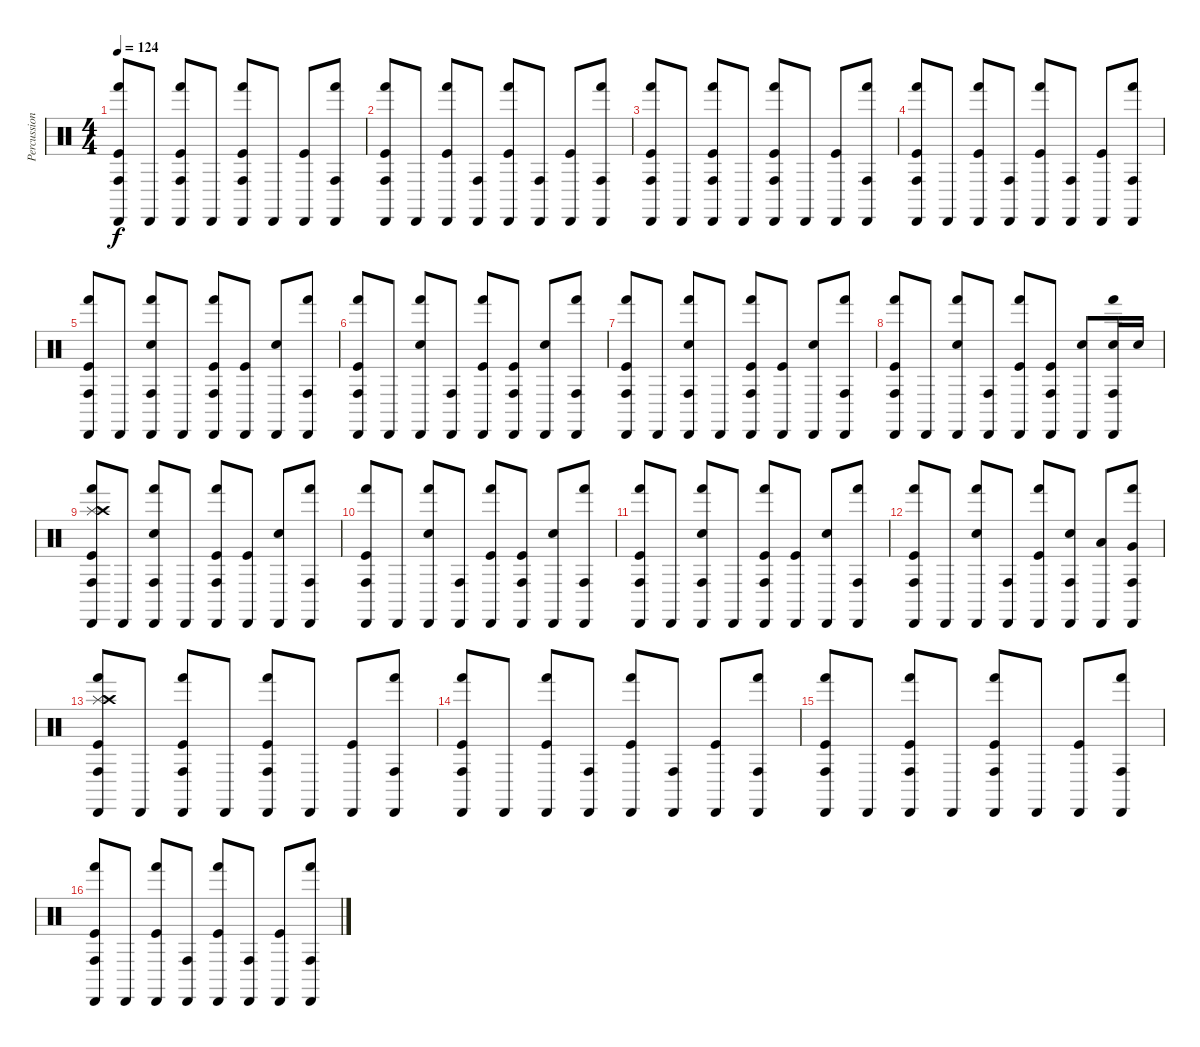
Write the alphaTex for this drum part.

\track ("Percussion" "Percussion") {instrument percussion}
\staff {score}
\articulation defaults
\ts (4 4)
\tempo 124
\clef neutral
\ks c
("Cabasa (hit)" "Kick (hit)" "Hand (hit)" "Conga high (hit)").8{dy f} "Cabasa (hit)".8 ("Cabasa (hit)" "Kick (hit)" "Hand (hit)" "Conga high (hit)").8 "Cabasa (hit)".8 ("Cabasa (hit)" "Kick (hit)" "Hand (hit)" "Conga high (hit)").8 "Cabasa (hit)".8 ("Cabasa (hit)" "Kick (hit)").8 ("Cabasa (hit)" "Hand (hit)" "Conga high (hit)").8 |
("Cabasa (hit)" "Kick (hit)" "Hand (hit)" "Conga high (hit)").8 "Cabasa (hit)".8 ("Cabasa (hit)" "Kick (hit)" "Hand (hit)").8 ("Cabasa (hit)" "Conga high (hit)").8 ("Cabasa (hit)" "Kick (hit)" "Hand (hit)").8 ("Cabasa (hit)" "Conga high (hit)").8 ("Cabasa (hit)" "Kick (hit)").8 ("Cabasa (hit)" "Hand (hit)" "Conga high (hit)").8 |
("Cabasa (hit)" "Kick (hit)" "Hand (hit)" "Conga high (hit)").8 "Cabasa (hit)".8 ("Cabasa (hit)" "Kick (hit)" "Hand (hit)" "Conga high (hit)").8 "Cabasa (hit)".8 ("Cabasa (hit)" "Kick (hit)" "Hand (hit)" "Conga high (hit)").8 "Cabasa (hit)".8 ("Cabasa (hit)" "Kick (hit)").8 ("Cabasa (hit)" "Hand (hit)" "Conga high (hit)").8 |
("Cabasa (hit)" "Kick (hit)" "Hand (hit)" "Conga high (hit)").8 "Cabasa (hit)".8 ("Cabasa (hit)" "Kick (hit)" "Hand (hit)").8 ("Cabasa (hit)" "Conga high (hit)").8 ("Cabasa (hit)" "Kick (hit)" "Hand (hit)").8 ("Cabasa (hit)" "Conga high (hit)").8 ("Cabasa (hit)" "Kick (hit)").8 ("Cabasa (hit)" "Hand (hit)" "Conga high (hit)").8 |
("Cabasa (hit)" "Kick (hit)" "Hand (hit)" "Conga high (hit)").8 "Cabasa (hit)".8 ("Cabasa (hit)" "Electric Snare (hit)" "Hand (hit)" "Conga high (hit)").8 "Cabasa (hit)".8 ("Cabasa (hit)" "Kick (hit)" "Hand (hit)" "Conga high (hit)").8 ("Cabasa (hit)" "Kick (hit)").8 ("Cabasa (hit)" "Electric Snare (hit)").8 ("Cabasa (hit)" "Hand (hit)" "Conga high (hit)").8 |
("Cabasa (hit)" "Kick (hit)" "Hand (hit)" "Conga high (hit)").8 "Cabasa (hit)".8 ("Cabasa (hit)" "Electric Snare (hit)" "Hand (hit)").8 ("Cabasa (hit)" "Conga high (hit)").8 ("Cabasa (hit)" "Kick (hit)" "Hand (hit)").8 ("Cabasa (hit)" "Kick (hit)" "Conga high (hit)").8 ("Cabasa (hit)" "Electric Snare (hit)").8 ("Cabasa (hit)" "Hand (hit)" "Conga high (hit)").8 |
("Cabasa (hit)" "Kick (hit)" "Hand (hit)" "Conga high (hit)").8 "Cabasa (hit)".8 ("Cabasa (hit)" "Electric Snare (hit)" "Hand (hit)" "Conga high (hit)").8 "Cabasa (hit)".8 ("Cabasa (hit)" "Kick (hit)" "Hand (hit)" "Conga high (hit)").8 ("Cabasa (hit)" "Kick (hit)").8 ("Cabasa (hit)" "Electric Snare (hit)").8 ("Cabasa (hit)" "Hand (hit)" "Conga high (hit)").8 |
("Cabasa (hit)" "Kick (hit)" "Hand (hit)" "Conga high (hit)").8 "Cabasa (hit)".8 ("Cabasa (hit)" "Electric Snare (hit)" "Hand (hit)").8 ("Cabasa (hit)" "Conga high (hit)").8 ("Cabasa (hit)" "Kick (hit)" "Hand (hit)").8 ("Cabasa (hit)" "Kick (hit)" "Conga high (hit)").8 ("Cabasa (hit)" "Electric Snare (hit)").8 ("Cabasa (hit)" "Snare (hit) 2" "Hand (hit)" "Conga high (hit)").16 "Snare (hit) 2".16 |
("Cabasa (hit)" "Kick (hit)" "Hand (hit)" "Conga high (hit)" "Splash (hit)" "Crash high (hit)").8 "Cabasa (hit)".8 ("Cabasa (hit)" "Electric Snare (hit)" "Hand (hit)" "Conga high (hit)").8 "Cabasa (hit)".8 ("Cabasa (hit)" "Kick (hit)" "Hand (hit)" "Conga high (hit)").8 ("Cabasa (hit)" "Kick (hit)").8 ("Cabasa (hit)" "Electric Snare (hit)").8 ("Cabasa (hit)" "Hand (hit)" "Conga high (hit)").8 |
("Cabasa (hit)" "Kick (hit)" "Hand (hit)" "Conga high (hit)").8 "Cabasa (hit)".8 ("Cabasa (hit)" "Electric Snare (hit)" "Hand (hit)").8 ("Cabasa (hit)" "Conga high (hit)").8 ("Cabasa (hit)" "Kick (hit)" "Hand (hit)").8 ("Cabasa (hit)" "Kick (hit)" "Conga high (hit)").8 ("Cabasa (hit)" "Electric Snare (hit)").8 ("Cabasa (hit)" "Hand (hit)" "Conga high (hit)").8 |
("Cabasa (hit)" "Kick (hit)" "Hand (hit)" "Conga high (hit)").8 "Cabasa (hit)".8 ("Cabasa (hit)" "Electric Snare (hit)" "Hand (hit)" "Conga high (hit)").8 "Cabasa (hit)".8 ("Cabasa (hit)" "Kick (hit)" "Hand (hit)" "Conga high (hit)").8 ("Cabasa (hit)" "Kick (hit)").8 ("Cabasa (hit)" "Electric Snare (hit)").8 ("Cabasa (hit)" "Hand (hit)" "Conga high (hit)").8 |
("Cabasa (hit)" "Kick (hit)" "Hand (hit)" "Conga high (hit)").8 "Cabasa (hit)".8 ("Cabasa (hit)" "Electric Snare (hit)" "Hand (hit)").8 ("Cabasa (hit)" "Conga high (hit)").8 ("Cabasa (hit)" "Kick (hit)" "Hand (hit)").8 ("Cabasa (hit)" "Snare (hit) 2" "Conga high (hit)").8 ("Cabasa (hit)" "Low Floor Tom (hit)").8 ("Cabasa (hit)" "Very Low Tom (hit)" "Hand (hit)" "Conga high (hit)").8 |
("Cabasa (hit)" "Kick (hit)" "Hand (hit)" "Conga high (hit)" "Splash (hit)" "Crash high (hit)").8 "Cabasa (hit)".8 ("Cabasa (hit)" "Kick (hit)" "Hand (hit)" "Conga high (hit)").8 "Cabasa (hit)".8 ("Cabasa (hit)" "Kick (hit)" "Hand (hit)" "Conga high (hit)").8 "Cabasa (hit)".8 ("Cabasa (hit)" "Kick (hit)").8 ("Cabasa (hit)" "Hand (hit)" "Conga high (hit)").8 |
("Cabasa (hit)" "Kick (hit)" "Hand (hit)" "Conga high (hit)").8 "Cabasa (hit)".8 ("Cabasa (hit)" "Kick (hit)" "Hand (hit)").8 ("Cabasa (hit)" "Conga high (hit)").8 ("Cabasa (hit)" "Kick (hit)" "Hand (hit)").8 ("Cabasa (hit)" "Conga high (hit)").8 ("Cabasa (hit)" "Kick (hit)").8 ("Cabasa (hit)" "Hand (hit)" "Conga high (hit)").8 |
("Cabasa (hit)" "Kick (hit)" "Hand (hit)" "Conga high (hit)").8 "Cabasa (hit)".8 ("Cabasa (hit)" "Kick (hit)" "Hand (hit)" "Conga high (hit)").8 "Cabasa (hit)".8 ("Cabasa (hit)" "Kick (hit)" "Hand (hit)" "Conga high (hit)").8 "Cabasa (hit)".8 ("Cabasa (hit)" "Kick (hit)").8 ("Cabasa (hit)" "Hand (hit)" "Conga high (hit)").8 |
("Cabasa (hit)" "Kick (hit)" "Hand (hit)" "Conga high (hit)").8 "Cabasa (hit)".8 ("Cabasa (hit)" "Kick (hit)" "Hand (hit)").8 ("Cabasa (hit)" "Conga high (hit)").8 ("Cabasa (hit)" "Kick (hit)" "Hand (hit)").8 ("Cabasa (hit)" "Conga high (hit)").8 ("Cabasa (hit)" "Kick (hit)").8 ("Cabasa (hit)" "Hand (hit)" "Conga high (hit)").8
